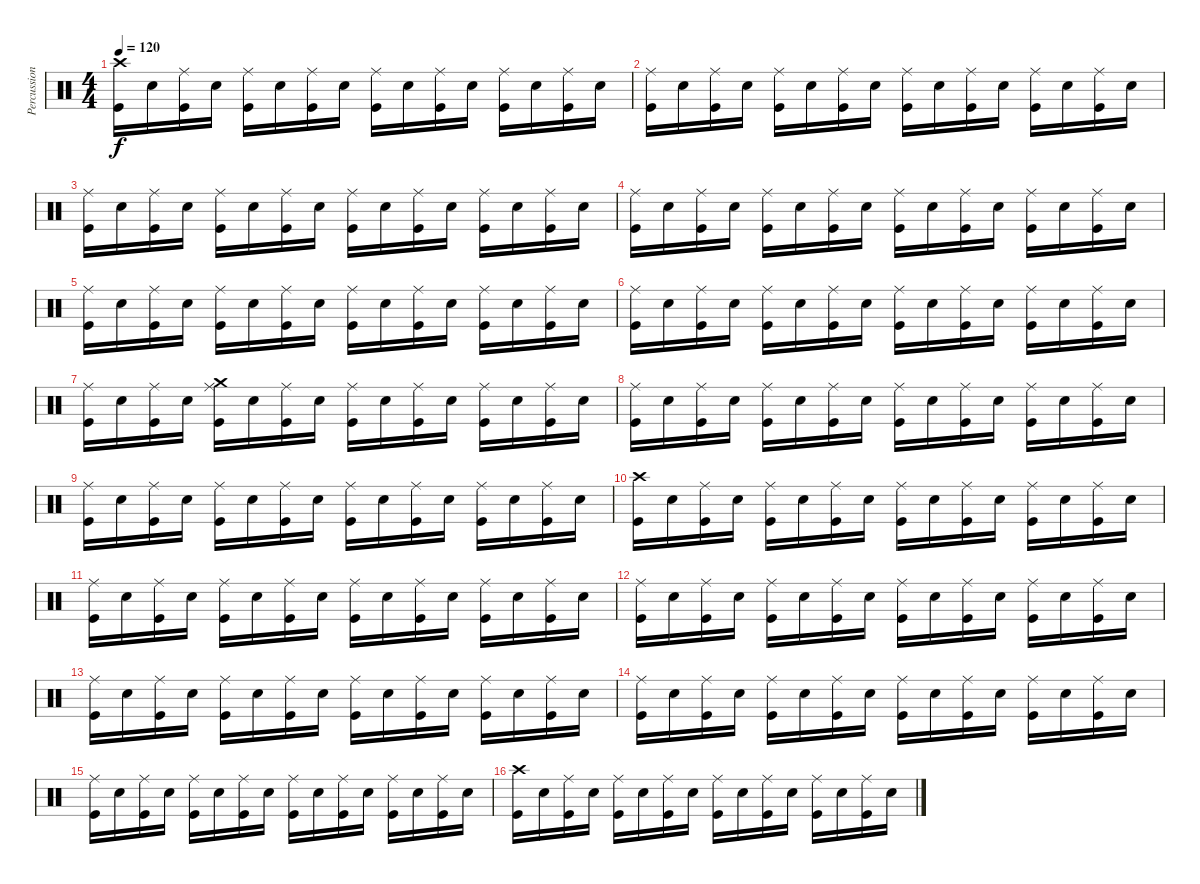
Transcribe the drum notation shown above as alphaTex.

\track ("Percussioni" "Percussion") {instrument percussion}
\staff {score}
\articulation defaults
\ts (4 4)
\tempo 120
\clef neutral
\ks c
("Crash high (hit)" "Kick (hit)").16{dy f} "Snare (hit) 2".16 ("Ride (middle)" "Kick (hit)").16 "Snare (hit) 2".16 ("Ride (middle)" "Kick (hit)").16 "Snare (hit) 2".16 ("Ride (middle)" "Kick (hit)").16 "Snare (hit) 2".16 ("Ride (middle)" "Kick (hit)").16 "Snare (hit) 2".16 ("Ride (middle)" "Kick (hit)").16 "Snare (hit) 2".16 ("Ride (middle)" "Kick (hit)").16 "Snare (hit) 2".16 ("Ride (middle)" "Kick (hit)").16 "Snare (hit) 2".16 |
("Ride (middle)" "Kick (hit)").16 "Snare (hit) 2".16 ("Ride (middle)" "Kick (hit)").16 "Snare (hit) 2".16 ("Ride (middle)" "Kick (hit)").16 "Snare (hit) 2".16 ("Ride (middle)" "Kick (hit)").16 "Snare (hit) 2".16 ("Ride (middle)" "Kick (hit)").16 "Snare (hit) 2".16 ("Ride (middle)" "Kick (hit)").16 "Snare (hit) 2".16 ("Ride (middle)" "Kick (hit)").16 "Snare (hit) 2".16 ("Ride (middle)" "Kick (hit)").16 "Snare (hit) 2".16 |
("Ride (middle)" "Kick (hit)").16 "Snare (hit) 2".16 ("Ride (middle)" "Kick (hit)").16 "Snare (hit) 2".16 ("Ride (middle)" "Kick (hit)").16 "Snare (hit) 2".16 ("Ride (middle)" "Kick (hit)").16 "Snare (hit) 2".16 ("Ride (middle)" "Kick (hit)").16 "Snare (hit) 2".16 ("Ride (middle)" "Kick (hit)").16 "Snare (hit) 2".16 ("Ride (middle)" "Kick (hit)").16 "Snare (hit) 2".16 ("Ride (middle)" "Kick (hit)").16 "Snare (hit) 2".16 |
("Ride (middle)" "Kick (hit)").16 "Snare (hit) 2".16 ("Ride (middle)" "Kick (hit)").16 "Snare (hit) 2".16 ("Ride (middle)" "Kick (hit)").16 "Snare (hit) 2".16 ("Ride (middle)" "Kick (hit)").16 "Snare (hit) 2".16 ("Ride (middle)" "Kick (hit)").16 "Snare (hit) 2".16 ("Ride (middle)" "Kick (hit)").16 "Snare (hit) 2".16 ("Ride (middle)" "Kick (hit)").16 "Snare (hit) 2".16 ("Ride (middle)" "Kick (hit)").16 "Snare (hit) 2".16 |
("Ride (middle)" "Kick (hit)").16 "Snare (hit) 2".16 ("Ride (middle)" "Kick (hit)").16 "Snare (hit) 2".16 ("Ride (middle)" "Kick (hit)").16 "Snare (hit) 2".16 ("Ride (middle)" "Kick (hit)").16 "Snare (hit) 2".16 ("Ride (middle)" "Kick (hit)").16 "Snare (hit) 2".16 ("Ride (middle)" "Kick (hit)").16 "Snare (hit) 2".16 ("Ride (middle)" "Kick (hit)").16 "Snare (hit) 2".16 ("Ride (middle)" "Kick (hit)").16 "Snare (hit) 2".16 |
("Ride (middle)" "Kick (hit)").16 "Snare (hit) 2".16 ("Ride (middle)" "Kick (hit)").16 "Snare (hit) 2".16 ("Ride (middle)" "Kick (hit)").16 "Snare (hit) 2".16 ("Ride (middle)" "Kick (hit)").16 "Snare (hit) 2".16 ("Ride (middle)" "Kick (hit)").16 "Snare (hit) 2".16 ("Ride (middle)" "Kick (hit)").16 "Snare (hit) 2".16 ("Ride (middle)" "Kick (hit)").16 "Snare (hit) 2".16 ("Ride (middle)" "Kick (hit)").16 "Snare (hit) 2".16 |
("Ride (middle)" "Kick (hit)").16 "Snare (hit) 2".16 ("Ride (middle)" "Kick (hit)").16 "Snare (hit) 2".16 ("Crash medium (hit)" "Ride (middle)" "Kick (hit)").16 "Snare (hit) 2".16 ("Ride (middle)" "Kick (hit)").16 "Snare (hit) 2".16 ("Ride (middle)" "Kick (hit)").16 "Snare (hit) 2".16 ("Ride (middle)" "Kick (hit)").16 "Snare (hit) 2".16 ("Ride (middle)" "Kick (hit)").16 "Snare (hit) 2".16 ("Ride (middle)" "Kick (hit)").16 "Snare (hit) 2".16 |
("Ride (middle)" "Kick (hit)").16 "Snare (hit) 2".16 ("Ride (middle)" "Kick (hit)").16 "Snare (hit) 2".16 ("Ride (middle)" "Kick (hit)").16 "Snare (hit) 2".16 ("Ride (middle)" "Kick (hit)").16 "Snare (hit) 2".16 ("Ride (middle)" "Kick (hit)").16 "Snare (hit) 2".16 ("Ride (middle)" "Kick (hit)").16 "Snare (hit) 2".16 ("Ride (middle)" "Kick (hit)").16 "Snare (hit) 2".16 ("Ride (middle)" "Kick (hit)").16 "Snare (hit) 2".16 |
("Ride (middle)" "Kick (hit)").16 "Snare (hit) 2".16 ("Ride (middle)" "Kick (hit)").16 "Snare (hit) 2".16 ("Ride (middle)" "Kick (hit)").16 "Snare (hit) 2".16 ("Ride (middle)" "Kick (hit)").16 "Snare (hit) 2".16 ("Ride (middle)" "Kick (hit)").16 "Snare (hit) 2".16 ("Ride (middle)" "Kick (hit)").16 "Snare (hit) 2".16 ("Ride (middle)" "Kick (hit)").16 "Snare (hit) 2".16 ("Ride (middle)" "Kick (hit)").16 "Snare (hit) 2".16 |
("Crash high (hit)" "Kick (hit)").16 "Snare (hit) 2".16 ("Ride (middle)" "Kick (hit)").16 "Snare (hit) 2".16 ("Ride (middle)" "Kick (hit)").16 "Snare (hit) 2".16 ("Ride (middle)" "Kick (hit)").16 "Snare (hit) 2".16 ("Ride (middle)" "Kick (hit)").16 "Snare (hit) 2".16 ("Ride (middle)" "Kick (hit)").16 "Snare (hit) 2".16 ("Ride (middle)" "Kick (hit)").16 "Snare (hit) 2".16 ("Ride (middle)" "Kick (hit)").16 "Snare (hit) 2".16 |
("Ride (middle)" "Kick (hit)").16 "Snare (hit) 2".16 ("Ride (middle)" "Kick (hit)").16 "Snare (hit) 2".16 ("Ride (middle)" "Kick (hit)").16 "Snare (hit) 2".16 ("Ride (middle)" "Kick (hit)").16 "Snare (hit) 2".16 ("Ride (middle)" "Kick (hit)").16 "Snare (hit) 2".16 ("Ride (middle)" "Kick (hit)").16 "Snare (hit) 2".16 ("Ride (middle)" "Kick (hit)").16 "Snare (hit) 2".16 ("Ride (middle)" "Kick (hit)").16 "Snare (hit) 2".16 |
("Ride (middle)" "Kick (hit)").16 "Snare (hit) 2".16 ("Ride (middle)" "Kick (hit)").16 "Snare (hit) 2".16 ("Ride (middle)" "Kick (hit)").16 "Snare (hit) 2".16 ("Ride (middle)" "Kick (hit)").16 "Snare (hit) 2".16 ("Ride (middle)" "Kick (hit)").16 "Snare (hit) 2".16 ("Ride (middle)" "Kick (hit)").16 "Snare (hit) 2".16 ("Ride (middle)" "Kick (hit)").16 "Snare (hit) 2".16 ("Ride (middle)" "Kick (hit)").16 "Snare (hit) 2".16 |
("Ride (middle)" "Kick (hit)").16 "Snare (hit) 2".16 ("Ride (middle)" "Kick (hit)").16 "Snare (hit) 2".16 ("Ride (middle)" "Kick (hit)").16 "Snare (hit) 2".16 ("Ride (middle)" "Kick (hit)").16 "Snare (hit) 2".16 ("Ride (middle)" "Kick (hit)").16 "Snare (hit) 2".16 ("Ride (middle)" "Kick (hit)").16 "Snare (hit) 2".16 ("Ride (middle)" "Kick (hit)").16 "Snare (hit) 2".16 ("Ride (middle)" "Kick (hit)").16 "Snare (hit) 2".16 |
("Ride (middle)" "Kick (hit)").16 "Snare (hit) 2".16 ("Ride (middle)" "Kick (hit)").16 "Snare (hit) 2".16 ("Ride (middle)" "Kick (hit)").16 "Snare (hit) 2".16 ("Ride (middle)" "Kick (hit)").16 "Snare (hit) 2".16 ("Ride (middle)" "Kick (hit)").16 "Snare (hit) 2".16 ("Ride (middle)" "Kick (hit)").16 "Snare (hit) 2".16 ("Ride (middle)" "Kick (hit)").16 "Snare (hit) 2".16 ("Ride (middle)" "Kick (hit)").16 "Snare (hit) 2".16 |
("Ride (middle)" "Kick (hit)").16 "Snare (hit) 2".16 ("Ride (middle)" "Kick (hit)").16 "Snare (hit) 2".16 ("Ride (middle)" "Kick (hit)").16 "Snare (hit) 2".16 ("Ride (middle)" "Kick (hit)").16 "Snare (hit) 2".16 ("Ride (middle)" "Kick (hit)").16 "Snare (hit) 2".16 ("Ride (middle)" "Kick (hit)").16 "Snare (hit) 2".16 ("Ride (middle)" "Kick (hit)").16 "Snare (hit) 2".16 ("Ride (middle)" "Kick (hit)").16 "Snare (hit) 2".16 |
("Crash high (hit)" "Kick (hit)").16 "Snare (hit) 2".16 ("Ride (middle)" "Kick (hit)").16 "Snare (hit) 2".16 ("Ride (middle)" "Kick (hit)").16 "Snare (hit) 2".16 ("Ride (middle)" "Kick (hit)").16 "Snare (hit) 2".16 ("Ride (middle)" "Kick (hit)").16 "Snare (hit) 2".16 ("Ride (middle)" "Kick (hit)").16 "Snare (hit) 2".16 ("Ride (middle)" "Kick (hit)").16 "Snare (hit) 2".16 ("Ride (middle)" "Kick (hit)").16 "Snare (hit) 2".16
